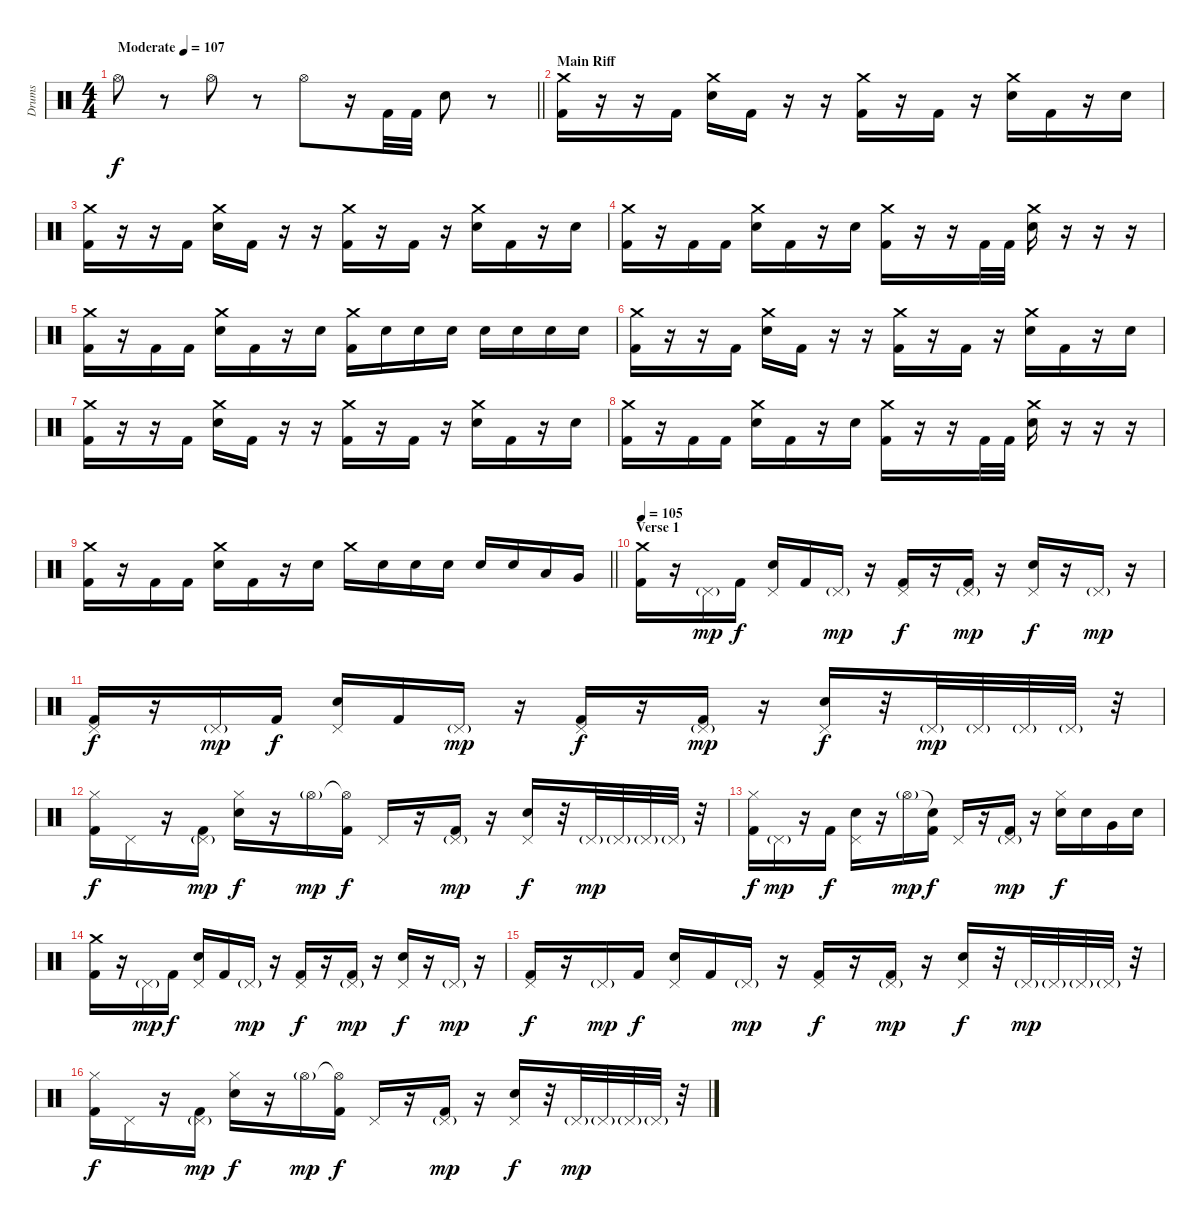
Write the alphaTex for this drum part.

\track ("Drums" "Drums") {instrument percussion}
\staff {score}
\articulation defaults
\ts (4 4)
\tempo (107 "Moderate")
\clef neutral
\barLineRight lightlight
\ks c "Hi-Hat (open)".8{dy f}
r.8 "Hi-Hat (open)".8 r.8 "Hi-Hat (open)".8 r.16 "Kick (hit) 2".32 "Kick (hit) 2".32 "Electric Snare (hit)".8 r.8 |
\section ("" "Main Riff")
("Crash medium (hit)" "Kick (hit) 2").16 r.16 r.16 "Kick (hit) 2".16 ("Crash medium (hit)" "Electric Snare (hit)").16 "Kick (hit) 2".16 r.16 r.16 ("Crash medium (hit)" "Kick (hit) 2").16 r.16 "Kick (hit) 2".16 r.16 ("Crash medium (hit)" "Electric Snare (hit)").16 "Kick (hit) 2".16 r.16 "Electric Snare (hit)".16 |
("Crash medium (hit)" "Kick (hit) 2").16 r.16 r.16 "Kick (hit) 2".16 ("Crash medium (hit)" "Electric Snare (hit)").16 "Kick (hit) 2".16 r.16 r.16 ("Crash medium (hit)" "Kick (hit) 2").16 r.16 "Kick (hit) 2".16 r.16 ("Crash medium (hit)" "Electric Snare (hit)").16 "Kick (hit) 2".16 r.16 "Electric Snare (hit)".16 |
("Crash medium (hit)" "Kick (hit) 2").16 r.16 "Kick (hit) 2".16 "Kick (hit) 2".16 ("Crash medium (hit)" "Electric Snare (hit)").16 "Kick (hit) 2".16 r.16 "Electric Snare (hit)".16 ("Crash medium (hit)" "Kick (hit) 2").16 r.16 r.16 "Kick (hit) 2".32 "Kick (hit) 2".32 ("Crash medium (hit)" "Electric Snare (hit)").16 r.16 r.16 r.16 |
("Crash medium (hit)" "Kick (hit) 2").16 r.16 "Kick (hit) 2".16 "Kick (hit) 2".16 ("Crash medium (hit)" "Electric Snare (hit)").16 "Kick (hit) 2".16 r.16 "Electric Snare (hit)".16 ("Crash medium (hit)" "Kick (hit) 2").16 "Electric Snare (hit)".16 "Electric Snare (hit)".16 "Electric Snare (hit)".16 "Electric Snare (hit)".16 "Electric Snare (hit)".16 "Electric Snare (hit)".16 "Electric Snare (hit)".16 |
("Crash medium (hit)" "Kick (hit) 2").16 r.16 r.16 "Kick (hit) 2".16 ("Crash medium (hit)" "Electric Snare (hit)").16 "Kick (hit) 2".16 r.16 r.16 ("Crash medium (hit)" "Kick (hit) 2").16 r.16 "Kick (hit) 2".16 r.16 ("Crash medium (hit)" "Electric Snare (hit)").16 "Kick (hit) 2".16 r.16 "Electric Snare (hit)".16 |
("Crash medium (hit)" "Kick (hit) 2").16 r.16 r.16 "Kick (hit) 2".16 ("Crash medium (hit)" "Electric Snare (hit)").16 "Kick (hit) 2".16 r.16 r.16 ("Crash medium (hit)" "Kick (hit) 2").16 r.16 "Kick (hit) 2".16 r.16 ("Crash medium (hit)" "Electric Snare (hit)").16 "Kick (hit) 2".16 r.16 "Electric Snare (hit)".16 |
("Crash medium (hit)" "Kick (hit) 2").16 r.16 "Kick (hit) 2".16 "Kick (hit) 2".16 ("Crash medium (hit)" "Electric Snare (hit)").16 "Kick (hit) 2".16 r.16 "Electric Snare (hit)".16 ("Crash medium (hit)" "Kick (hit) 2").16 r.16 r.16 "Kick (hit) 2".32 "Kick (hit) 2".32 ("Crash medium (hit)" "Electric Snare (hit)").16 r.16 r.16 r.16 |
\barLineRight lightlight
("Crash medium (hit)" "Kick (hit) 2").16 r.16 "Kick (hit) 2".16 "Kick (hit) 2".16 ("Crash medium (hit)" "Electric Snare (hit)").16 "Kick (hit) 2".16 r.16 "Electric Snare (hit)".16 "Crash medium (hit)".16 "Electric Snare (hit)".16 "Electric Snare (hit)".16 "Electric Snare (hit)".16 "Electric Snare (hit)".16 "Electric Snare (hit)".16 "Low Tom (hit)".16 "Very Low Tom (hit)".16 |
\section ("" "Verse 1")
\tempo 105
("Crash medium (hit)" "Kick (hit) 2").16 r.16 "Pedal Hi-Hat (hit)"{g}.16{dy mp} "Kick (hit) 2".16{dy f} ("Pedal Hi-Hat (hit)" "Electric Snare (hit)").16 "Kick (hit) 2".16 "Pedal Hi-Hat (hit)"{g}.16{dy mp} r.16 ("Pedal Hi-Hat (hit)" "Kick (hit) 2").16{dy f} r.16 ("Pedal Hi-Hat (hit)"{g} "Kick (hit) 2").16{dy mp} r.16 ("Pedal Hi-Hat (hit)" "Electric Snare (hit)").16{dy f} r.16 "Pedal Hi-Hat (hit)"{g}.16{dy mp} r.16 |
("Pedal Hi-Hat (hit)" "Kick (hit) 2").16{dy f} r.16 "Pedal Hi-Hat (hit)"{g}.16{dy mp} "Kick (hit) 2".16{dy f} ("Pedal Hi-Hat (hit)" "Electric Snare (hit)").16 "Kick (hit) 2".16 "Pedal Hi-Hat (hit)"{g}.16{dy mp} r.16 ("Pedal Hi-Hat (hit)" "Kick (hit) 2").16{dy f} r.16 ("Pedal Hi-Hat (hit)"{g} "Kick (hit) 2").16{dy mp} r.16 ("Pedal Hi-Hat (hit)" "Electric Snare (hit)").16{dy f} r.32 "Pedal Hi-Hat (hit)"{g}.32{dy mp} "Pedal Hi-Hat (hit)"{g}.32 "Pedal Hi-Hat (hit)"{g}.32 "Pedal Hi-Hat (hit)"{g}.32 r.32 |
("Hi-Hat (closed)" "Kick (hit) 2").16{dy f} "Pedal Hi-Hat (hit)".16 r.16 ("Pedal Hi-Hat (hit)"{g} "Kick (hit) 2").16{dy mp} ("Hi-Hat (closed)" "Electric Snare (hit)").16{dy f} r.16 "Hi-Hat (open)"{g}.16{dy mp} ("Hi-Hat (open)"{t} "Kick (hit) 2").16{dy f} "Pedal Hi-Hat (hit)".16 r.16 ("Pedal Hi-Hat (hit)"{g} "Kick (hit) 2").16{dy mp} r.16 ("Pedal Hi-Hat (hit)" "Electric Snare (hit)").16{dy f} r.32 "Pedal Hi-Hat (hit)"{g}.32{dy mp} "Pedal Hi-Hat (hit)"{g}.32 "Pedal Hi-Hat (hit)"{g}.32 "Pedal Hi-Hat (hit)"{g}.32 r.32 |
("Hi-Hat (closed)" "Kick (hit) 2").16{dy f} "Pedal Hi-Hat (hit)"{g}.16{dy mp} r.16 "Kick (hit) 2".16{dy f} ("Pedal Hi-Hat (hit)" "Electric Snare (hit)").16 r.16 "Hi-Hat (open)"{g}.16{dy mp} ("Snare (hit)"{t} "Kick (hit) 2").16{dy f} "Pedal Hi-Hat (hit)".16 r.16 ("Pedal Hi-Hat (hit)"{g} "Kick (hit) 2").16{dy mp} r.16 ("Hi-Hat (closed)" "Electric Snare (hit)").16{dy f} "Electric Snare (hit)".16 "Very Low Tom (hit)".16 "Electric Snare (hit)".16 |
("Crash medium (hit)" "Kick (hit) 2").16 r.16 "Pedal Hi-Hat (hit)"{g}.16{dy mp} "Kick (hit) 2".16{dy f} ("Pedal Hi-Hat (hit)" "Electric Snare (hit)").16 "Kick (hit) 2".16 "Pedal Hi-Hat (hit)"{g}.16{dy mp} r.16 ("Pedal Hi-Hat (hit)" "Kick (hit) 2").16{dy f} r.16 ("Pedal Hi-Hat (hit)"{g} "Kick (hit) 2").16{dy mp} r.16 ("Pedal Hi-Hat (hit)" "Electric Snare (hit)").16{dy f} r.16 "Pedal Hi-Hat (hit)"{g}.16{dy mp} r.16 |
("Pedal Hi-Hat (hit)" "Kick (hit) 2").16{dy f} r.16 "Pedal Hi-Hat (hit)"{g}.16{dy mp} "Kick (hit) 2".16{dy f} ("Pedal Hi-Hat (hit)" "Electric Snare (hit)").16 "Kick (hit) 2".16 "Pedal Hi-Hat (hit)"{g}.16{dy mp} r.16 ("Pedal Hi-Hat (hit)" "Kick (hit) 2").16{dy f} r.16 ("Pedal Hi-Hat (hit)"{g} "Kick (hit) 2").16{dy mp} r.16 ("Pedal Hi-Hat (hit)" "Electric Snare (hit)").16{dy f} r.32 "Pedal Hi-Hat (hit)"{g}.32{dy mp} "Pedal Hi-Hat (hit)"{g}.32 "Pedal Hi-Hat (hit)"{g}.32 "Pedal Hi-Hat (hit)"{g}.32 r.32 |
("Hi-Hat (closed)" "Kick (hit) 2").16{dy f} "Pedal Hi-Hat (hit)".16 r.16 ("Pedal Hi-Hat (hit)"{g} "Kick (hit) 2").16{dy mp} ("Hi-Hat (closed)" "Electric Snare (hit)").16{dy f} r.16 "Hi-Hat (open)"{g}.16{dy mp} ("Hi-Hat (open)"{t} "Kick (hit) 2").16{dy f} "Pedal Hi-Hat (hit)".16 r.16 ("Pedal Hi-Hat (hit)"{g} "Kick (hit) 2").16{dy mp} r.16 ("Pedal Hi-Hat (hit)" "Electric Snare (hit)").16{dy f} r.32 "Pedal Hi-Hat (hit)"{g}.32{dy mp} "Pedal Hi-Hat (hit)"{g}.32 "Pedal Hi-Hat (hit)"{g}.32 "Pedal Hi-Hat (hit)"{g}.32 r.32
